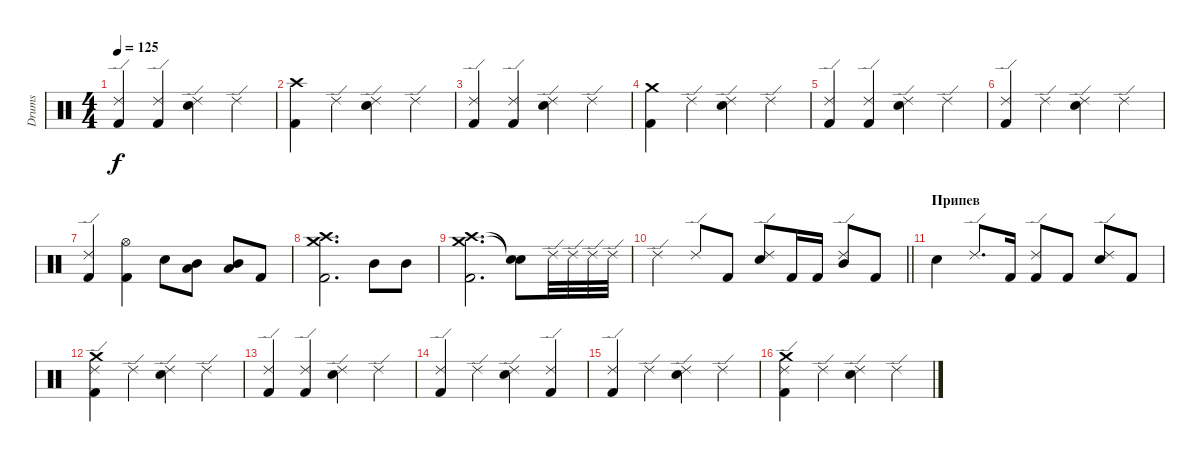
\track ("Drums" "Drums") {instrument percussion}
\staff {score}
\articulation defaults
\ts (4 4)
\tempo 125
\clef neutral
\ks c
("Ride (edge) 2" "Kick (hit) 2").4{dy f} ("Ride (edge) 2" "Kick (hit) 2").4 ("Ride (edge) 2" "Snare (hit) 2").4 "Ride (edge) 2".4 |
("Crash high (hit)" "Kick (hit) 2").4 "Ride (edge) 2".4 ("Ride (edge) 2" "Snare (hit) 2").4 "Ride (edge) 2".4 |
("Ride (edge) 2" "Kick (hit) 2").4 ("Ride (edge) 2" "Kick (hit) 2").4 ("Ride (edge) 2" "Snare (hit) 2").4 "Ride (edge) 2".4 |
("Crash medium (hit)" "Kick (hit) 2").4 "Ride (edge) 2".4 ("Ride (edge) 2" "Snare (hit) 2").4 "Ride (edge) 2".4 |
("Ride (edge) 2" "Kick (hit) 2").4 ("Ride (edge) 2" "Kick (hit) 2").4 ("Ride (edge) 2" "Snare (hit) 2").4 "Ride (edge) 2".4 |
("Ride (edge) 2" "Kick (hit) 2").4 "Ride (edge) 2".4 ("Ride (edge) 2" "Snare (hit) 2").4 "Ride (edge) 2".4 |
("Ride (edge) 2" "Kick (hit) 2").4 ("Hi-Hat (open)" "Kick (hit) 2").4 "Snare (hit) 2".8 ("Mid Tom (hit)" "Low Tom (hit)").8 ("Mid Tom (hit)" "Low Tom (hit)").8 "Kick (hit) 2".8 |
("Crash high (hit)" "Crash medium (hit)" "Kick (hit) 2").2{d} "Mid Tom (hit)".8 "Mid Tom (hit)".8 |
("Crash high (hit)" "Crash medium (hit)" "Kick (hit) 2").2{d} ("Snare (hit)"{t} "Snare (hit)"{t}).8 "Ride (edge) 2".32 "Ride (edge) 2".32 "Ride (edge) 2".32 "Ride (edge) 2".32 |
\barLineRight lightlight "Ride (edge) 2".4 "Ride (edge) 2".8 "Kick (hit) 2".8
("Ride (edge) 2" "Snare (hit) 2").8 "Kick (hit) 2".16 "Kick (hit) 2".16 ("Ride (edge) 2" "Mid Tom (hit)").8 "Kick (hit) 2".8 |
\section ("" "Припев")
"Snare (hit) 2".4 "Ride (edge) 2".8{d} "Kick (hit) 2".16 ("Ride (edge) 2" "Kick (hit) 2").8 "Kick (hit) 2".8 ("Ride (edge) 2" "Snare (hit) 2").8 "Kick (hit) 2".8 |
("Crash medium (hit)" "Ride (edge) 2" "Kick (hit) 2").4 "Ride (edge) 2".4 ("Ride (edge) 2" "Snare (hit) 2").4 "Ride (edge) 2".4 |
("Ride (edge) 2" "Kick (hit) 2").4 ("Ride (edge) 2" "Kick (hit) 2").4 ("Ride (edge) 2" "Snare (hit) 2").4 "Ride (edge) 2".4 |
("Ride (edge) 2" "Kick (hit) 2").4 "Ride (edge) 2".4 ("Ride (edge) 2" "Snare (hit) 2").4 ("Ride (edge) 2" "Kick (hit) 2").4 |
("Ride (edge) 2" "Kick (hit) 2").4 "Ride (edge) 2".4 ("Ride (edge) 2" "Snare (hit) 2").4 "Ride (edge) 2".4 |
("Crash medium (hit)" "Ride (edge) 2" "Kick (hit) 2").4 "Ride (edge) 2".4 ("Ride (edge) 2" "Snare (hit) 2").4 "Ride (edge) 2".4
